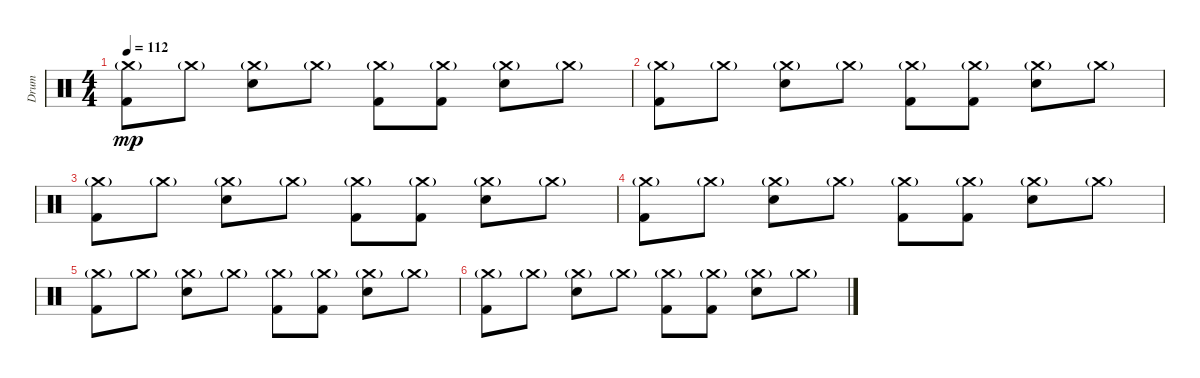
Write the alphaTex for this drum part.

\track ("Drum" "Drum") {instrument percussion}
\staff {score}
\articulation defaults
\ts (4 4)
\tempo 112
\clef neutral
\ks c
("Crash medium (hit)"{g} "Kick (hit) 2").8{dy mp} "Crash medium (hit)"{g}.8 ("Crash medium (hit)"{g} "Electric Snare (hit)").8 "Crash medium (hit)"{g}.8 ("Crash medium (hit)"{g} "Kick (hit) 2").8 ("Crash medium (hit)"{g} "Kick (hit) 2").8 ("Crash medium (hit)"{g} "Electric Snare (hit)").8 "Crash medium (hit)"{g}.8 |
("Crash medium (hit)"{g} "Kick (hit) 2").8 "Crash medium (hit)"{g}.8 ("Crash medium (hit)"{g} "Electric Snare (hit)").8 "Crash medium (hit)"{g}.8 ("Crash medium (hit)"{g} "Kick (hit) 2").8 ("Crash medium (hit)"{g} "Kick (hit) 2").8 ("Crash medium (hit)"{g} "Electric Snare (hit)").8 "Crash medium (hit)"{g}.8 |
("Crash medium (hit)"{g} "Kick (hit) 2").8 "Crash medium (hit)"{g}.8 ("Crash medium (hit)"{g} "Electric Snare (hit)").8 "Crash medium (hit)"{g}.8 ("Crash medium (hit)"{g} "Kick (hit) 2").8 ("Crash medium (hit)"{g} "Kick (hit) 2").8 ("Crash medium (hit)"{g} "Electric Snare (hit)").8 "Crash medium (hit)"{g}.8 |
("Crash medium (hit)"{g} "Kick (hit) 2").8 "Crash medium (hit)"{g}.8 ("Crash medium (hit)"{g} "Electric Snare (hit)").8 "Crash medium (hit)"{g}.8 ("Crash medium (hit)"{g} "Kick (hit) 2").8 ("Crash medium (hit)"{g} "Kick (hit) 2").8 ("Crash medium (hit)"{g} "Electric Snare (hit)").8 "Crash medium (hit)"{g}.8 |
("Crash medium (hit)"{g} "Kick (hit) 2").8 "Crash medium (hit)"{g}.8 ("Crash medium (hit)"{g} "Electric Snare (hit)").8 "Crash medium (hit)"{g}.8 ("Crash medium (hit)"{g} "Kick (hit) 2").8 ("Crash medium (hit)"{g} "Kick (hit) 2").8 ("Crash medium (hit)"{g} "Electric Snare (hit)").8 "Crash medium (hit)"{g}.8 |
("Crash medium (hit)"{g} "Kick (hit) 2").8 "Crash medium (hit)"{g}.8 ("Crash medium (hit)"{g} "Electric Snare (hit)").8 "Crash medium (hit)"{g}.8 ("Crash medium (hit)"{g} "Kick (hit) 2").8 ("Crash medium (hit)"{g} "Kick (hit) 2").8 ("Crash medium (hit)"{g} "Electric Snare (hit)").8 "Crash medium (hit)"{g}.8
